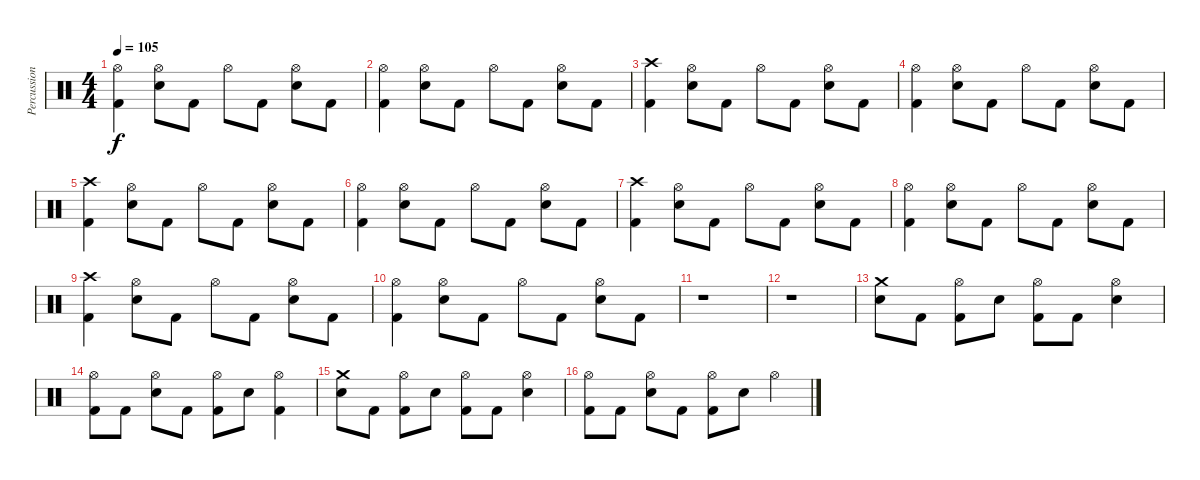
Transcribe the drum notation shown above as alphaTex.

\track ("Percussion" "Percussion") {instrument percussion}
\staff {score}
\articulation defaults
\ts (4 4)
\tempo 105
\clef neutral
\ks c
("Hi-Hat (open)" "Kick (hit) 2").4{dy f} ("Hi-Hat (open)" "Snare (hit) 2").8 "Kick (hit) 2".8 "Hi-Hat (open)".8 "Kick (hit) 2".8 ("Hi-Hat (open)" "Snare (hit) 2").8 "Kick (hit) 2".8 |
("Hi-Hat (open)" "Kick (hit) 2").4 ("Hi-Hat (open)" "Snare (hit) 2").8 "Kick (hit) 2".8 "Hi-Hat (open)".8 "Kick (hit) 2".8 ("Hi-Hat (open)" "Snare (hit) 2").8 "Kick (hit) 2".8 |
("Crash high (hit)" "Kick (hit) 2").4 ("Hi-Hat (open)" "Snare (hit) 2").8 "Kick (hit) 2".8 "Hi-Hat (open)".8 "Kick (hit) 2".8 ("Hi-Hat (open)" "Snare (hit) 2").8 "Kick (hit) 2".8 |
("Hi-Hat (open)" "Kick (hit) 2").4 ("Hi-Hat (open)" "Snare (hit) 2").8 "Kick (hit) 2".8 "Hi-Hat (open)".8 "Kick (hit) 2".8 ("Hi-Hat (open)" "Snare (hit) 2").8 "Kick (hit) 2".8 |
("Crash high (hit)" "Kick (hit) 2").4 ("Hi-Hat (open)" "Snare (hit) 2").8 "Kick (hit) 2".8 "Hi-Hat (open)".8 "Kick (hit) 2".8 ("Hi-Hat (open)" "Snare (hit) 2").8 "Kick (hit) 2".8 |
("Hi-Hat (open)" "Kick (hit) 2").4 ("Hi-Hat (open)" "Snare (hit) 2").8 "Kick (hit) 2".8 "Hi-Hat (open)".8 "Kick (hit) 2".8 ("Hi-Hat (open)" "Snare (hit) 2").8 "Kick (hit) 2".8 |
("Crash high (hit)" "Kick (hit) 2").4 ("Hi-Hat (open)" "Snare (hit) 2").8 "Kick (hit) 2".8 "Hi-Hat (open)".8 "Kick (hit) 2".8 ("Hi-Hat (open)" "Snare (hit) 2").8 "Kick (hit) 2".8 |
("Hi-Hat (open)" "Kick (hit) 2").4 ("Hi-Hat (open)" "Snare (hit) 2").8 "Kick (hit) 2".8 "Hi-Hat (open)".8 "Kick (hit) 2".8 ("Hi-Hat (open)" "Snare (hit) 2").8 "Kick (hit) 2".8 |
("Crash high (hit)" "Kick (hit) 2").4 ("Hi-Hat (open)" "Snare (hit) 2").8 "Kick (hit) 2".8 "Hi-Hat (open)".8 "Kick (hit) 2".8 ("Hi-Hat (open)" "Snare (hit) 2").8 "Kick (hit) 2".8 |
("Hi-Hat (open)" "Kick (hit) 2").4 ("Hi-Hat (open)" "Snare (hit) 2").8 "Kick (hit) 2".8 "Hi-Hat (open)".8 "Kick (hit) 2".8 ("Hi-Hat (open)" "Snare (hit) 2").8 "Kick (hit) 2".8 |
r.1 |
r.1 |
("Crash medium (hit)" "Snare (hit) 2").8 "Kick (hit) 2".8 ("Hi-Hat (open)" "Kick (hit) 2").8 "Snare (hit) 2".8 ("Hi-Hat (open)" "Kick (hit) 2").8 "Kick (hit) 2".8 ("Hi-Hat (open)" "Snare (hit) 2").4 |
("Hi-Hat (open)" "Kick (hit) 2").8 "Kick (hit) 2".8 ("Hi-Hat (open)" "Snare (hit) 2").8 "Kick (hit) 2".8 ("Hi-Hat (open)" "Kick (hit) 2").8 "Snare (hit) 2".8 ("Hi-Hat (open)" "Kick (hit) 2").4 |
("Crash medium (hit)" "Snare (hit) 2").8 "Kick (hit) 2".8 ("Hi-Hat (open)" "Kick (hit) 2").8 "Snare (hit) 2".8 ("Hi-Hat (open)" "Kick (hit) 2").8 "Kick (hit) 2".8 ("Hi-Hat (open)" "Snare (hit) 2").4 |
("Hi-Hat (open)" "Kick (hit) 2").8 "Kick (hit) 2".8 ("Hi-Hat (open)" "Snare (hit) 2").8 "Kick (hit) 2".8 ("Hi-Hat (open)" "Kick (hit) 2").8 "Snare (hit) 2".8 "Hi-Hat (open)".4
